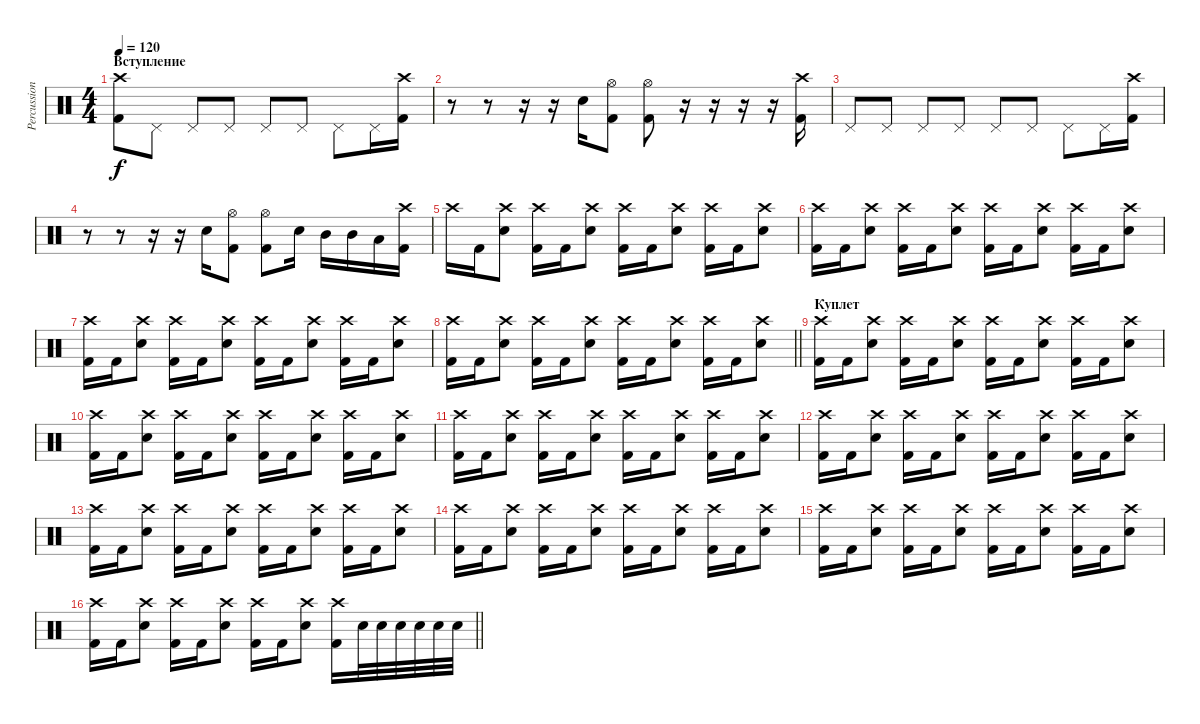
\track ("Percussion" "Percussion") {instrument percussion}
\staff {score}
\articulation defaults
\ts (4 4)
\section ("" "Вступление")
\tempo 120
\clef neutral
\ks c
("Crash high (hit)" "Kick (hit) 2").8{dy f} "Pedal Hi-Hat (hit)".8 "Pedal Hi-Hat (hit)".8 "Pedal Hi-Hat (hit)".8 "Pedal Hi-Hat (hit)".8 "Pedal Hi-Hat (hit)".8 "Pedal Hi-Hat (hit)".8 "Pedal Hi-Hat (hit)".16 ("Crash high (hit)" "Kick (hit) 2").16 |
r.8 r.8 r.16 r.16 "Electric Snare (hit)".16 ("Hi-Hat (open)" "Kick (hit) 2").8 ("Hi-Hat (open)" "Kick (hit) 2").8 r.16 r.16 r.16 r.16 ("Crash high (hit)" "Kick (hit) 2").16 |
"Pedal Hi-Hat (hit)".8 "Pedal Hi-Hat (hit)".8 "Pedal Hi-Hat (hit)".8 "Pedal Hi-Hat (hit)".8 "Pedal Hi-Hat (hit)".8 "Pedal Hi-Hat (hit)".8 "Pedal Hi-Hat (hit)".8 "Pedal Hi-Hat (hit)".16 ("Crash high (hit)" "Kick (hit) 2").16 |
r.8 r.8 r.16 r.16 "Electric Snare (hit)".16 ("Hi-Hat (open)" "Kick (hit) 2").8 ("Hi-Hat (open)" "Kick (hit) 2").8 "Electric Snare (hit)".16 "Mid Tom (hit)".16 "Mid Tom (hit)".16 "Low Tom (hit)".16 ("Crash high (hit)" "Kick (hit) 2").16 |
"Crash high (hit)".16 "Kick (hit) 2".16 ("Crash high (hit)" "Electric Snare (hit)").8 ("Crash high (hit)" "Kick (hit) 2").16 "Kick (hit) 2".16 ("Crash high (hit)" "Electric Snare (hit)").8 ("Crash high (hit)" "Kick (hit) 2").16 "Kick (hit) 2".16 ("Crash high (hit)" "Electric Snare (hit)").8 ("Crash high (hit)" "Kick (hit) 2").16 "Kick (hit) 2".16 ("Crash high (hit)" "Electric Snare (hit)").8 |
("Crash high (hit)" "Kick (hit) 2").16 "Kick (hit) 2".16 ("Crash high (hit)" "Electric Snare (hit)").8 ("Crash high (hit)" "Kick (hit) 2").16 "Kick (hit) 2".16 ("Crash high (hit)" "Electric Snare (hit)").8 ("Crash high (hit)" "Kick (hit) 2").16 "Kick (hit) 2".16 ("Crash high (hit)" "Electric Snare (hit)").8 ("Crash high (hit)" "Kick (hit) 2").16 "Kick (hit) 2".16 ("Crash high (hit)" "Electric Snare (hit)").8 |
("Crash high (hit)" "Kick (hit) 2").16 "Kick (hit) 2".16 ("Crash high (hit)" "Electric Snare (hit)").8 ("Crash high (hit)" "Kick (hit) 2").16 "Kick (hit) 2".16 ("Crash high (hit)" "Electric Snare (hit)").8 ("Crash high (hit)" "Kick (hit) 2").16 "Kick (hit) 2".16 ("Crash high (hit)" "Electric Snare (hit)").8 ("Crash high (hit)" "Kick (hit) 2").16 "Kick (hit) 2".16 ("Crash high (hit)" "Electric Snare (hit)").8 |
\barLineRight lightlight
("Crash high (hit)" "Kick (hit) 2").16 "Kick (hit) 2".16 ("Crash high (hit)" "Electric Snare (hit)").8 ("Crash high (hit)" "Kick (hit) 2").16 "Kick (hit) 2".16 ("Crash high (hit)" "Electric Snare (hit)").8 ("Crash high (hit)" "Kick (hit) 2").16 "Kick (hit) 2".16 ("Crash high (hit)" "Electric Snare (hit)").8 ("Crash high (hit)" "Kick (hit) 2").16 "Kick (hit) 2".16 ("Crash high (hit)" "Electric Snare (hit)").8 |
\section ("" "Куплет")
("Crash high (hit)" "Kick (hit) 2").16 "Kick (hit) 2".16 ("Crash high (hit)" "Electric Snare (hit)").8 ("Crash high (hit)" "Kick (hit) 2").16 "Kick (hit) 2".16 ("Crash high (hit)" "Electric Snare (hit)").8 ("Crash high (hit)" "Kick (hit) 2").16 "Kick (hit) 2".16 ("Crash high (hit)" "Electric Snare (hit)").8 ("Crash high (hit)" "Kick (hit) 2").16 "Kick (hit) 2".16 ("Crash high (hit)" "Electric Snare (hit)").8 |
("Crash high (hit)" "Kick (hit) 2").16 "Kick (hit) 2".16 ("Crash high (hit)" "Electric Snare (hit)").8 ("Crash high (hit)" "Kick (hit) 2").16 "Kick (hit) 2".16 ("Crash high (hit)" "Electric Snare (hit)").8 ("Crash high (hit)" "Kick (hit) 2").16 "Kick (hit) 2".16 ("Crash high (hit)" "Electric Snare (hit)").8 ("Crash high (hit)" "Kick (hit) 2").16 "Kick (hit) 2".16 ("Crash high (hit)" "Electric Snare (hit)").8 |
("Crash high (hit)" "Kick (hit) 2").16 "Kick (hit) 2".16 ("Crash high (hit)" "Electric Snare (hit)").8 ("Crash high (hit)" "Kick (hit) 2").16 "Kick (hit) 2".16 ("Crash high (hit)" "Electric Snare (hit)").8 ("Crash high (hit)" "Kick (hit) 2").16 "Kick (hit) 2".16 ("Crash high (hit)" "Electric Snare (hit)").8 ("Crash high (hit)" "Kick (hit) 2").16 "Kick (hit) 2".16 ("Crash high (hit)" "Electric Snare (hit)").8 |
("Crash high (hit)" "Kick (hit) 2").16 "Kick (hit) 2".16 ("Crash high (hit)" "Electric Snare (hit)").8 ("Crash high (hit)" "Kick (hit) 2").16 "Kick (hit) 2".16 ("Crash high (hit)" "Electric Snare (hit)").8 ("Crash high (hit)" "Kick (hit) 2").16 "Kick (hit) 2".16 ("Crash high (hit)" "Electric Snare (hit)").8 ("Crash high (hit)" "Kick (hit) 2").16 "Kick (hit) 2".16 ("Crash high (hit)" "Electric Snare (hit)").8 |
("Crash high (hit)" "Kick (hit) 2").16 "Kick (hit) 2".16 ("Crash high (hit)" "Electric Snare (hit)").8 ("Crash high (hit)" "Kick (hit) 2").16 "Kick (hit) 2".16 ("Crash high (hit)" "Electric Snare (hit)").8 ("Crash high (hit)" "Kick (hit) 2").16 "Kick (hit) 2".16 ("Crash high (hit)" "Electric Snare (hit)").8 ("Crash high (hit)" "Kick (hit) 2").16 "Kick (hit) 2".16 ("Crash high (hit)" "Electric Snare (hit)").8 |
("Crash high (hit)" "Kick (hit) 2").16 "Kick (hit) 2".16 ("Crash high (hit)" "Electric Snare (hit)").8 ("Crash high (hit)" "Kick (hit) 2").16 "Kick (hit) 2".16 ("Crash high (hit)" "Electric Snare (hit)").8 ("Crash high (hit)" "Kick (hit) 2").16 "Kick (hit) 2".16 ("Crash high (hit)" "Electric Snare (hit)").8 ("Crash high (hit)" "Kick (hit) 2").16 "Kick (hit) 2".16 ("Crash high (hit)" "Electric Snare (hit)").8 |
("Crash high (hit)" "Kick (hit) 2").16 "Kick (hit) 2".16 ("Crash high (hit)" "Electric Snare (hit)").8 ("Crash high (hit)" "Kick (hit) 2").16 "Kick (hit) 2".16 ("Crash high (hit)" "Electric Snare (hit)").8 ("Crash high (hit)" "Kick (hit) 2").16 "Kick (hit) 2".16 ("Crash high (hit)" "Electric Snare (hit)").8 ("Crash high (hit)" "Kick (hit) 2").16 "Kick (hit) 2".16 ("Crash high (hit)" "Electric Snare (hit)").8 |
\barLineRight lightlight
("Crash high (hit)" "Kick (hit) 2").16 "Kick (hit) 2".16 ("Crash high (hit)" "Electric Snare (hit)").8 ("Crash high (hit)" "Kick (hit) 2").16 "Kick (hit) 2".16 ("Crash high (hit)" "Electric Snare (hit)").8 ("Crash high (hit)" "Kick (hit) 2").16 "Kick (hit) 2".16 ("Crash high (hit)" "Electric Snare (hit)").8 ("Crash high (hit)" "Kick (hit) 2").16 "Electric Snare (hit)".32 "Electric Snare (hit)".32 "Electric Snare (hit)".32 "Electric Snare (hit)".32 "Electric Snare (hit)".32 "Electric Snare (hit)".32
